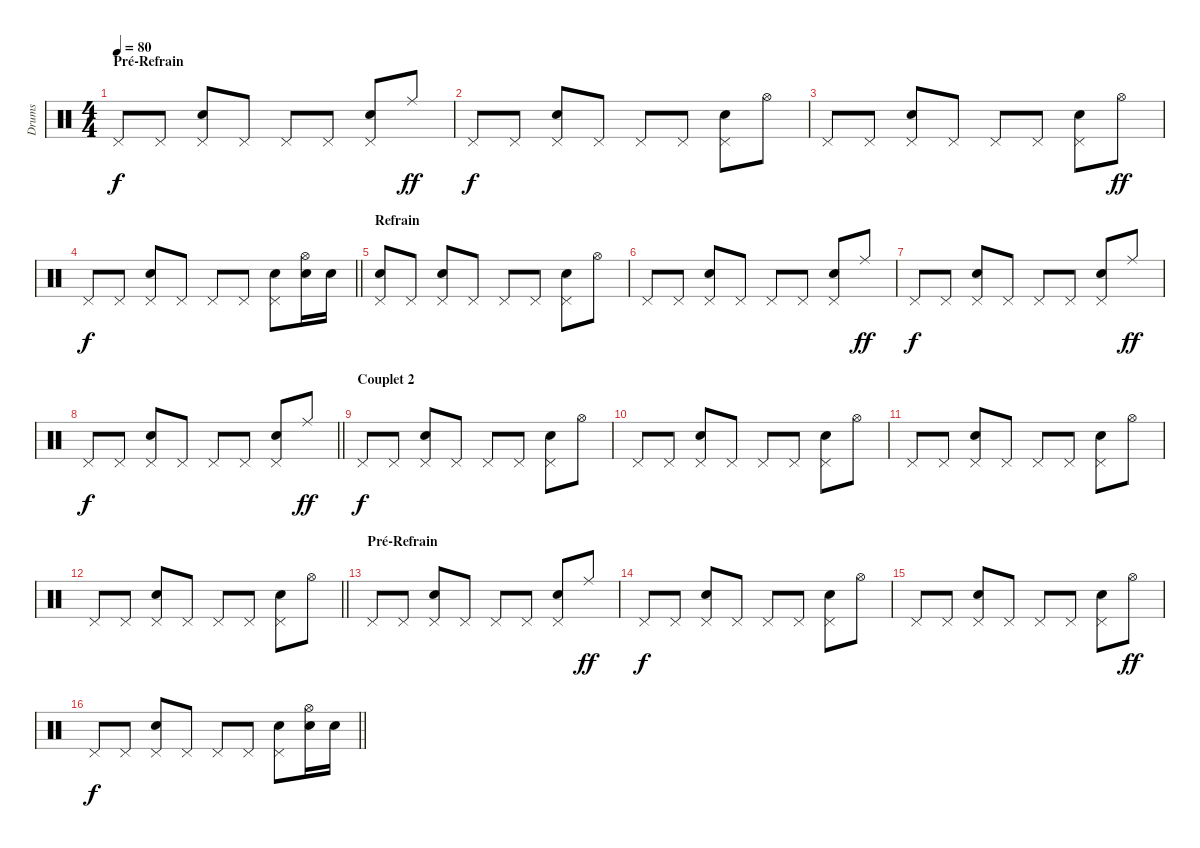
\track ("Drums" "Drums") {instrument percussion}
\staff {score}
\articulation defaults
\ts (4 4)
\section ("" "Pré-Refrain")
\tempo 80
\clef neutral
\ks c "Pedal Hi-Hat (hit)".8{dy f} "Pedal Hi-Hat (hit)".8
("Pedal Hi-Hat (hit)" "Snare (hit) 2").8 "Pedal Hi-Hat (hit)".8 "Pedal Hi-Hat (hit)".8 "Pedal Hi-Hat (hit)".8 ("Pedal Hi-Hat (hit)" "Snare (hit) 2").8 "Ride (middle)".8{dy ff} |
"Pedal Hi-Hat (hit)".8{dy f} "Pedal Hi-Hat (hit)".8 ("Pedal Hi-Hat (hit)" "Snare (hit) 2").8 "Pedal Hi-Hat (hit)".8 "Pedal Hi-Hat (hit)".8 "Pedal Hi-Hat (hit)".8 ("Pedal Hi-Hat (hit)" "Snare (hit) 2").8 "Hi-Hat (open)".8 |
"Pedal Hi-Hat (hit)".8 "Pedal Hi-Hat (hit)".8 ("Pedal Hi-Hat (hit)" "Snare (hit) 2").8 "Pedal Hi-Hat (hit)".8 "Pedal Hi-Hat (hit)".8 "Pedal Hi-Hat (hit)".8 ("Pedal Hi-Hat (hit)" "Snare (hit) 2").8 "Hi-Hat (open)".8{dy ff} |
\barLineRight lightlight "Pedal Hi-Hat (hit)".8{dy f} "Pedal Hi-Hat (hit)".8
("Pedal Hi-Hat (hit)" "Snare (hit) 2").8 "Pedal Hi-Hat (hit)".8 "Pedal Hi-Hat (hit)".8 "Pedal Hi-Hat (hit)".8 ("Pedal Hi-Hat (hit)" "Snare (hit) 2").8 ("Hi-Hat (open)" "Electric Snare (hit)").16 "Electric Snare (hit)".16 |
\section ("" "Refrain")
("Pedal Hi-Hat (hit)" "Electric Snare (hit)").8 "Pedal Hi-Hat (hit)".8 ("Pedal Hi-Hat (hit)" "Snare (hit) 2").8 "Pedal Hi-Hat (hit)".8 "Pedal Hi-Hat (hit)".8 "Pedal Hi-Hat (hit)".8 ("Pedal Hi-Hat (hit)" "Snare (hit) 2").8 "Hi-Hat (open)".8 |
"Pedal Hi-Hat (hit)".8 "Pedal Hi-Hat (hit)".8 ("Pedal Hi-Hat (hit)" "Snare (hit) 2").8 "Pedal Hi-Hat (hit)".8 "Pedal Hi-Hat (hit)".8 "Pedal Hi-Hat (hit)".8 ("Pedal Hi-Hat (hit)" "Snare (hit) 2").8 "Ride (middle)".8{dy ff} |
"Pedal Hi-Hat (hit)".8{dy f} "Pedal Hi-Hat (hit)".8 ("Pedal Hi-Hat (hit)" "Snare (hit) 2").8 "Pedal Hi-Hat (hit)".8 "Pedal Hi-Hat (hit)".8 "Pedal Hi-Hat (hit)".8 ("Pedal Hi-Hat (hit)" "Snare (hit) 2").8 "Ride (middle)".8{dy ff} |
\barLineRight lightlight "Pedal Hi-Hat (hit)".8{dy f} "Pedal Hi-Hat (hit)".8
("Pedal Hi-Hat (hit)" "Snare (hit) 2").8 "Pedal Hi-Hat (hit)".8 "Pedal Hi-Hat (hit)".8 "Pedal Hi-Hat (hit)".8 ("Pedal Hi-Hat (hit)" "Snare (hit) 2").8 "Ride (middle)".8{dy ff} |
\section ("" "Couplet 2")
"Pedal Hi-Hat (hit)".8{dy f} "Pedal Hi-Hat (hit)".8 ("Pedal Hi-Hat (hit)" "Snare (hit) 2").8 "Pedal Hi-Hat (hit)".8 "Pedal Hi-Hat (hit)".8 "Pedal Hi-Hat (hit)".8 ("Pedal Hi-Hat (hit)" "Snare (hit) 2").8 "Hi-Hat (open)".8 |
"Pedal Hi-Hat (hit)".8 "Pedal Hi-Hat (hit)".8 ("Pedal Hi-Hat (hit)" "Snare (hit) 2").8 "Pedal Hi-Hat (hit)".8 "Pedal Hi-Hat (hit)".8 "Pedal Hi-Hat (hit)".8 ("Pedal Hi-Hat (hit)" "Snare (hit) 2").8 "Hi-Hat (open)".8 |
"Pedal Hi-Hat (hit)".8 "Pedal Hi-Hat (hit)".8 ("Pedal Hi-Hat (hit)" "Snare (hit) 2").8 "Pedal Hi-Hat (hit)".8 "Pedal Hi-Hat (hit)".8 "Pedal Hi-Hat (hit)".8 ("Pedal Hi-Hat (hit)" "Snare (hit) 2").8 "Hi-Hat (open)".8 |
\barLineRight lightlight "Pedal Hi-Hat (hit)".8 "Pedal Hi-Hat (hit)".8
("Pedal Hi-Hat (hit)" "Snare (hit) 2").8 "Pedal Hi-Hat (hit)".8 "Pedal Hi-Hat (hit)".8 "Pedal Hi-Hat (hit)".8 ("Pedal Hi-Hat (hit)" "Snare (hit) 2").8 "Hi-Hat (open)".8 |
\section ("" "Pré-Refrain")
"Pedal Hi-Hat (hit)".8 "Pedal Hi-Hat (hit)".8 ("Pedal Hi-Hat (hit)" "Snare (hit) 2").8 "Pedal Hi-Hat (hit)".8 "Pedal Hi-Hat (hit)".8 "Pedal Hi-Hat (hit)".8 ("Pedal Hi-Hat (hit)" "Snare (hit) 2").8 "Ride (middle)".8{dy ff} |
"Pedal Hi-Hat (hit)".8{dy f} "Pedal Hi-Hat (hit)".8 ("Pedal Hi-Hat (hit)" "Snare (hit) 2").8 "Pedal Hi-Hat (hit)".8 "Pedal Hi-Hat (hit)".8 "Pedal Hi-Hat (hit)".8 ("Pedal Hi-Hat (hit)" "Snare (hit) 2").8 "Hi-Hat (open)".8 |
"Pedal Hi-Hat (hit)".8 "Pedal Hi-Hat (hit)".8 ("Pedal Hi-Hat (hit)" "Snare (hit) 2").8 "Pedal Hi-Hat (hit)".8 "Pedal Hi-Hat (hit)".8 "Pedal Hi-Hat (hit)".8 ("Pedal Hi-Hat (hit)" "Snare (hit) 2").8 "Hi-Hat (open)".8{dy ff} |
\barLineRight lightlight "Pedal Hi-Hat (hit)".8{dy f} "Pedal Hi-Hat (hit)".8
("Pedal Hi-Hat (hit)" "Snare (hit) 2").8 "Pedal Hi-Hat (hit)".8 "Pedal Hi-Hat (hit)".8 "Pedal Hi-Hat (hit)".8 ("Pedal Hi-Hat (hit)" "Snare (hit) 2").8 ("Hi-Hat (open)" "Electric Snare (hit)").16 "Electric Snare (hit)".16
